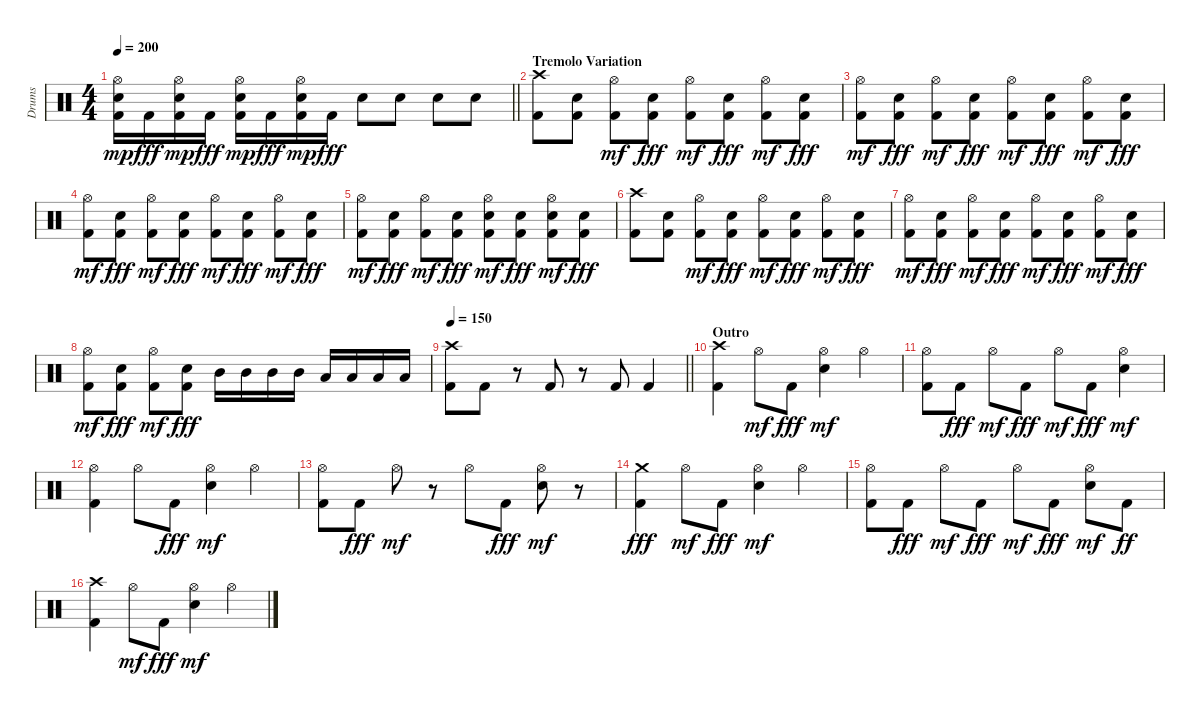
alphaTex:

\track ("Drums" "Drums") {instrument percussion}
\staff {score}
\articulation defaults
\ts (4 4)
\tempo 200
\clef neutral
\barLineRight lightlight
\ks c
("Kick (hit) 2" "Electric Snare (hit)" "Hi-Hat (open)").16{dy mp} "Kick (hit) 2".16{dy fff} ("Kick (hit) 2" "Electric Snare (hit)" "Hi-Hat (open)").16{dy mp} "Kick (hit) 2".16{dy fff} ("Kick (hit) 2" "Electric Snare (hit)" "Hi-Hat (open)").16{dy mp} "Kick (hit) 2".16{dy fff} ("Kick (hit) 2" "Electric Snare (hit)" "Hi-Hat (open)").16{dy mp} "Kick (hit) 2".16{dy fff} "Electric Snare (hit)".8 "Electric Snare (hit)".8 "Electric Snare (hit)".8 "Electric Snare (hit)".8 |
\section ("" "Tremolo Variation")
("Kick (hit) 2" "Crash high (hit)").8 ("Kick (hit) 2" "Electric Snare (hit)").8 ("Kick (hit) 2" "Hi-Hat (open)").8{dy mf} ("Kick (hit) 2" "Electric Snare (hit)").8{dy fff} ("Kick (hit) 2" "Hi-Hat (open)").8{dy mf} ("Kick (hit) 2" "Electric Snare (hit)").8{dy fff} ("Kick (hit) 2" "Hi-Hat (open)").8{dy mf} ("Kick (hit) 2" "Electric Snare (hit)").8{dy fff} |
("Kick (hit) 2" "Hi-Hat (open)").8{dy mf} ("Kick (hit) 2" "Electric Snare (hit)").8{dy fff} ("Kick (hit) 2" "Hi-Hat (open)").8{dy mf} ("Kick (hit) 2" "Electric Snare (hit)").8{dy fff} ("Kick (hit) 2" "Hi-Hat (open)").8{dy mf} ("Kick (hit) 2" "Electric Snare (hit)").8{dy fff} ("Kick (hit) 2" "Hi-Hat (open)").8{dy mf} ("Kick (hit) 2" "Electric Snare (hit)").8{dy fff} |
("Kick (hit) 2" "Hi-Hat (open)").8{dy mf} ("Kick (hit) 2" "Electric Snare (hit)").8{dy fff} ("Kick (hit) 2" "Hi-Hat (open)").8{dy mf} ("Kick (hit) 2" "Electric Snare (hit)").8{dy fff} ("Kick (hit) 2" "Hi-Hat (open)").8{dy mf} ("Kick (hit) 2" "Electric Snare (hit)").8{dy fff} ("Kick (hit) 2" "Hi-Hat (open)").8{dy mf} ("Kick (hit) 2" "Electric Snare (hit)").8{dy fff} |
("Kick (hit) 2" "Hi-Hat (open)").8{dy mf} ("Kick (hit) 2" "Electric Snare (hit)").8{dy fff} ("Kick (hit) 2" "Hi-Hat (open)").8{dy mf} ("Kick (hit) 2" "Electric Snare (hit)").8{dy fff} ("Kick (hit) 2" "Electric Snare (hit)" "Hi-Hat (open)").8{dy mf} ("Kick (hit) 2" "Electric Snare (hit)").8{dy fff} ("Kick (hit) 2" "Electric Snare (hit)" "Hi-Hat (open)").8{dy mf} ("Kick (hit) 2" "Electric Snare (hit)").8{dy fff} |
("Kick (hit) 2" "Crash high (hit)").8 ("Kick (hit) 2" "Electric Snare (hit)").8 ("Kick (hit) 2" "Hi-Hat (open)").8{dy mf} ("Kick (hit) 2" "Electric Snare (hit)").8{dy fff} ("Kick (hit) 2" "Hi-Hat (open)").8{dy mf} ("Kick (hit) 2" "Electric Snare (hit)").8{dy fff} ("Kick (hit) 2" "Hi-Hat (open)").8{dy mf} ("Kick (hit) 2" "Electric Snare (hit)").8{dy fff} |
("Kick (hit) 2" "Hi-Hat (open)").8{dy mf} ("Kick (hit) 2" "Electric Snare (hit)").8{dy fff} ("Kick (hit) 2" "Hi-Hat (open)").8{dy mf} ("Kick (hit) 2" "Electric Snare (hit)").8{dy fff} ("Kick (hit) 2" "Hi-Hat (open)").8{dy mf} ("Kick (hit) 2" "Electric Snare (hit)").8{dy fff} ("Kick (hit) 2" "Hi-Hat (open)").8{dy mf} ("Kick (hit) 2" "Electric Snare (hit)").8{dy fff} |
("Kick (hit) 2" "Hi-Hat (open)").8{dy mf} ("Kick (hit) 2" "Electric Snare (hit)").8{dy fff} ("Kick (hit) 2" "Hi-Hat (open)").8{dy mf} ("Kick (hit) 2" "Electric Snare (hit)").8{dy fff} "Mid Tom (hit)".16 "Mid Tom (hit)".16 "Mid Tom (hit)".16 "Mid Tom (hit)".16 "Low Tom (hit)".16 "Low Tom (hit)".16 "Low Tom (hit)".16 "Low Tom (hit)".16 |
\tempo 150
\barLineRight lightlight
("Kick (hit) 2" "Crash high (hit)").8 "Kick (hit) 2".8 r.8 "Kick (hit) 2".8 r.8 "Kick (hit) 2".8 "Kick (hit) 2".4 |
\section ("" "Outro")
("Kick (hit) 2" "Crash high (hit)").4 "Hi-Hat (open)".8{dy mf} "Kick (hit) 2".8{dy fff} ("Electric Snare (hit)" "Hi-Hat (open)").4{dy mf} "Hi-Hat (open)".4 |
("Kick (hit) 2" "Hi-Hat (open)").8 "Kick (hit) 2".8{dy fff} "Hi-Hat (open)".8{dy mf} "Kick (hit) 2".8{dy fff} "Hi-Hat (open)".8{dy mf} "Kick (hit) 2".8{dy fff} ("Electric Snare (hit)" "Hi-Hat (open)").4{dy mf} |
("Kick (hit) 2" "Hi-Hat (open)").4 "Hi-Hat (open)".8 "Kick (hit) 2".8{dy fff} ("Electric Snare (hit)" "Hi-Hat (open)").4{dy mf} "Hi-Hat (open)".4 |
("Kick (hit) 2" "Hi-Hat (open)").8 "Kick (hit) 2".8{dy fff} "Hi-Hat (open)".8{dy mf} r.8 "Hi-Hat (open)".8 "Kick (hit) 2".8{dy fff} ("Electric Snare (hit)" "Hi-Hat (open)").8{dy mf} r.8 |
("Kick (hit) 2" "Crash medium (hit)").4{dy fff} "Hi-Hat (open)".8{dy mf} "Kick (hit) 2".8{dy fff} ("Electric Snare (hit)" "Hi-Hat (open)").4{dy mf} "Hi-Hat (open)".4 |
("Kick (hit) 2" "Hi-Hat (open)").8 "Kick (hit) 2".8{dy fff} "Hi-Hat (open)".8{dy mf} "Kick (hit) 2".8{dy fff} "Hi-Hat (open)".8{dy mf} "Kick (hit) 2".8{dy fff} ("Electric Snare (hit)" "Hi-Hat (open)").8{dy mf} "Kick (hit) 2".8{dy ff} |
("Kick (hit) 2" "Crash high (hit)").4 "Hi-Hat (open)".8{dy mf} "Kick (hit) 2".8{dy fff} ("Electric Snare (hit)" "Hi-Hat (open)").4{dy mf} "Hi-Hat (open)".4
